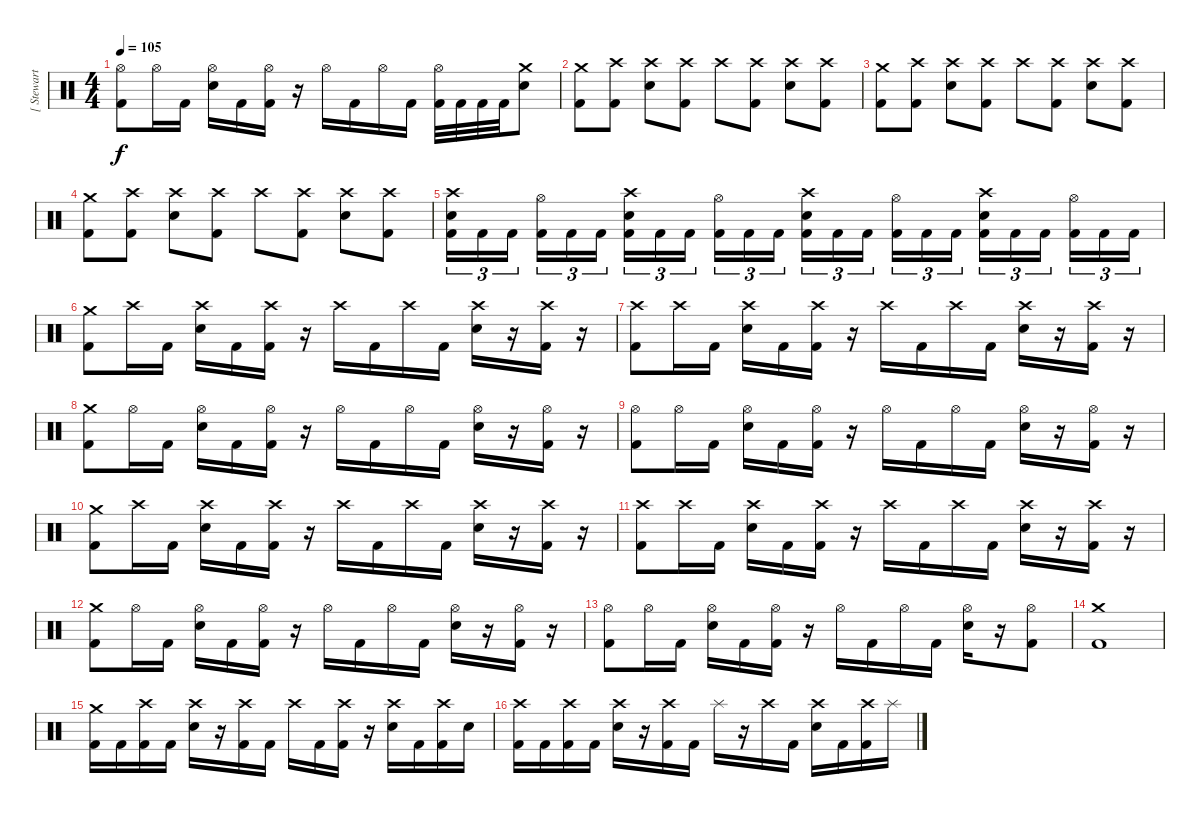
\track ("[ Stewart ]" "[ Stewart ") {instrument percussion}
\staff {score}
\articulation defaults
\ts (4 4)
\tempo 105
\clef neutral
\ks c
("Kick (hit) 2" "Hi-Hat (open)").8{dy f} "Hi-Hat (open)".16 "Kick (hit) 2".16 ("Electric Snare (hit)" "Hi-Hat (open)").16 "Kick (hit) 2".16 ("Kick (hit) 2" "Hi-Hat (open)").16 r.16 "Hi-Hat (open)".16 "Kick (hit) 2".16 "Hi-Hat (open)".16 "Kick (hit) 2".16 ("Kick (hit) 2" "Hi-Hat (open)").32 "Kick (hit) 2".32 "Kick (hit) 2".32 "Kick (hit) 2".32 ("Electric Snare (hit)" "Crash medium (hit)").8 |
("Kick (hit) 2" "Crash medium (hit)").8 ("Kick (hit) 2" "Crash high (hit)").8 ("Electric Snare (hit)" "Crash high (hit)").8 ("Kick (hit) 2" "Crash high (hit)").8 "Crash high (hit)".8 ("Kick (hit) 2" "Crash high (hit)").8 ("Electric Snare (hit)" "Crash high (hit)").8 ("Kick (hit) 2" "Crash high (hit)").8 |
("Kick (hit) 2" "Crash medium (hit)").8 ("Kick (hit) 2" "Crash high (hit)").8 ("Electric Snare (hit)" "Crash high (hit)").8 ("Kick (hit) 2" "Crash high (hit)").8 "Crash high (hit)".8 ("Kick (hit) 2" "Crash high (hit)").8 ("Electric Snare (hit)" "Crash high (hit)").8 ("Kick (hit) 2" "Crash high (hit)").8 |
("Kick (hit) 2" "Crash medium (hit)").8 ("Kick (hit) 2" "Crash high (hit)").8 ("Electric Snare (hit)" "Crash high (hit)").8 ("Kick (hit) 2" "Crash high (hit)").8 "Crash high (hit)".8 ("Kick (hit) 2" "Crash high (hit)").8 ("Electric Snare (hit)" "Crash high (hit)").8 ("Kick (hit) 2" "Crash high (hit)").8 |
("Kick (hit) 2" "Electric Snare (hit)" "Crash high (hit)").16{tu (3 2)} "Kick (hit) 2".16{tu (3 2)} "Kick (hit) 2".16{tu (3 2)} ("Kick (hit) 2" "Hi-Hat (open)").16{tu (3 2)} "Kick (hit) 2".16{tu (3 2)} "Kick (hit) 2".16{tu (3 2)} ("Kick (hit) 2" "Electric Snare (hit)" "Crash high (hit)").16{tu (3 2)} "Kick (hit) 2".16{tu (3 2)} "Kick (hit) 2".16{tu (3 2)} ("Kick (hit) 2" "Hi-Hat (open)").16{tu (3 2)} "Kick (hit) 2".16{tu (3 2)} "Kick (hit) 2".16{tu (3 2)} ("Kick (hit) 2" "Electric Snare (hit)" "Crash high (hit)").16{tu (3 2)} "Kick (hit) 2".16{tu (3 2)} "Kick (hit) 2".16{tu (3 2)} ("Kick (hit) 2" "Hi-Hat (open)").16{tu (3 2)} "Kick (hit) 2".16{tu (3 2)} "Kick (hit) 2".16{tu (3 2)} ("Kick (hit) 2" "Electric Snare (hit)" "Crash high (hit)").16{tu (3 2)} "Kick (hit) 2".16{tu (3 2)} "Kick (hit) 2".16{tu (3 2)} ("Kick (hit) 2" "Hi-Hat (open)").16{tu (3 2)} "Kick (hit) 2".16{tu (3 2)} "Kick (hit) 2".16{tu (3 2)} |
("Kick (hit) 2" "Crash medium (hit)").8 "Crash high (hit)".16 "Kick (hit) 2".16 ("Electric Snare (hit)" "Crash high (hit)").16 "Kick (hit) 2".16 ("Kick (hit) 2" "Crash high (hit)").16 r.16 "Crash high (hit)".16 "Kick (hit) 2".16 "Crash high (hit)".16 "Kick (hit) 2".16 ("Electric Snare (hit)" "Crash high (hit)").16 r.16 ("Kick (hit) 2" "Crash high (hit)").16 r.16 |
("Kick (hit) 2" "Crash high (hit)").8 "Crash high (hit)".16 "Kick (hit) 2".16 ("Electric Snare (hit)" "Crash high (hit)").16 "Kick (hit) 2".16 ("Kick (hit) 2" "Crash high (hit)").16 r.16 "Crash high (hit)".16 "Kick (hit) 2".16 "Crash high (hit)".16 "Kick (hit) 2".16 ("Electric Snare (hit)" "Crash high (hit)").16 r.16 ("Kick (hit) 2" "Crash high (hit)").16 r.16 |
("Kick (hit) 2" "Crash medium (hit)").8 "Hi-Hat (open)".16 "Kick (hit) 2".16 ("Electric Snare (hit)" "Hi-Hat (open)").16 "Kick (hit) 2".16 ("Kick (hit) 2" "Hi-Hat (open)").16 r.16 "Hi-Hat (open)".16 "Kick (hit) 2".16 "Hi-Hat (open)".16 "Kick (hit) 2".16 ("Electric Snare (hit)" "Hi-Hat (open)").16 r.16 ("Kick (hit) 2" "Hi-Hat (open)").16 r.16 |
("Kick (hit) 2" "Hi-Hat (open)").8 "Hi-Hat (open)".16 "Kick (hit) 2".16 ("Electric Snare (hit)" "Hi-Hat (open)").16 "Kick (hit) 2".16 ("Kick (hit) 2" "Hi-Hat (open)").16 r.16 "Hi-Hat (open)".16 "Kick (hit) 2".16 "Hi-Hat (open)".16 "Kick (hit) 2".16 ("Electric Snare (hit)" "Hi-Hat (open)").16 r.16 ("Kick (hit) 2" "Hi-Hat (open)").16 r.16 |
("Kick (hit) 2" "Crash medium (hit)").8 "Crash high (hit)".16 "Kick (hit) 2".16 ("Electric Snare (hit)" "Crash high (hit)").16 "Kick (hit) 2".16 ("Kick (hit) 2" "Crash high (hit)").16 r.16 "Crash high (hit)".16 "Kick (hit) 2".16 "Crash high (hit)".16 "Kick (hit) 2".16 ("Electric Snare (hit)" "Crash high (hit)").16 r.16 ("Kick (hit) 2" "Crash high (hit)").16 r.16 |
("Kick (hit) 2" "Crash high (hit)").8 "Crash high (hit)".16 "Kick (hit) 2".16 ("Electric Snare (hit)" "Crash high (hit)").16 "Kick (hit) 2".16 ("Kick (hit) 2" "Crash high (hit)").16 r.16 "Crash high (hit)".16 "Kick (hit) 2".16 "Crash high (hit)".16 "Kick (hit) 2".16 ("Electric Snare (hit)" "Crash high (hit)").16 r.16 ("Kick (hit) 2" "Crash high (hit)").16 r.16 |
("Kick (hit) 2" "Crash medium (hit)").8 "Hi-Hat (open)".16 "Kick (hit) 2".16 ("Electric Snare (hit)" "Hi-Hat (open)").16 "Kick (hit) 2".16 ("Kick (hit) 2" "Hi-Hat (open)").16 r.16 "Hi-Hat (open)".16 "Kick (hit) 2".16 "Hi-Hat (open)".16 "Kick (hit) 2".16 ("Electric Snare (hit)" "Hi-Hat (open)").16 r.16 ("Kick (hit) 2" "Hi-Hat (open)").16 r.16 |
("Kick (hit) 2" "Hi-Hat (open)").8 "Hi-Hat (open)".16 "Kick (hit) 2".16 ("Electric Snare (hit)" "Hi-Hat (open)").16 "Kick (hit) 2".16 ("Kick (hit) 2" "Hi-Hat (open)").16 r.16 "Hi-Hat (open)".16 "Kick (hit) 2".16 "Hi-Hat (open)".16 "Kick (hit) 2".16 ("Electric Snare (hit)" "Hi-Hat (open)").16 r.16 ("Kick (hit) 2" "Hi-Hat (open)").8 |
("Kick (hit) 2" "Crash medium (hit)").1 |
("Kick (hit) 2" "Crash medium (hit)").16 "Kick (hit) 2".16 ("Kick (hit) 2" "Crash high (hit)").16 "Kick (hit) 2".16 ("Electric Snare (hit)" "Crash high (hit)").16 r.16 ("Kick (hit) 2" "Crash high (hit)").16 "Kick (hit) 2".16 "Crash high (hit)".16 "Kick (hit) 2".16 ("Kick (hit) 2" "Crash high (hit)").16 r.16 ("Electric Snare (hit)" "Crash high (hit)").16 "Kick (hit) 2".16 ("Kick (hit) 2" "Crash high (hit)").16 "Electric Snare (hit)".16 |
("Kick (hit) 2" "Crash high (hit)").16 "Kick (hit) 2".16 ("Kick (hit) 2" "Crash high (hit)").16 "Kick (hit) 2".16 ("Electric Snare (hit)" "Crash high (hit)").16 r.16 ("Kick (hit) 2" "Crash high (hit)").16 "Kick (hit) 2".16 "Splash (hit)".16 r.16 "Crash high (hit)".16 "Kick (hit) 2".16 ("Electric Snare (hit)" "Crash high (hit)").16 "Kick (hit) 2".16 ("Kick (hit) 2" "Crash high (hit)").16 "Splash (hit)".16
